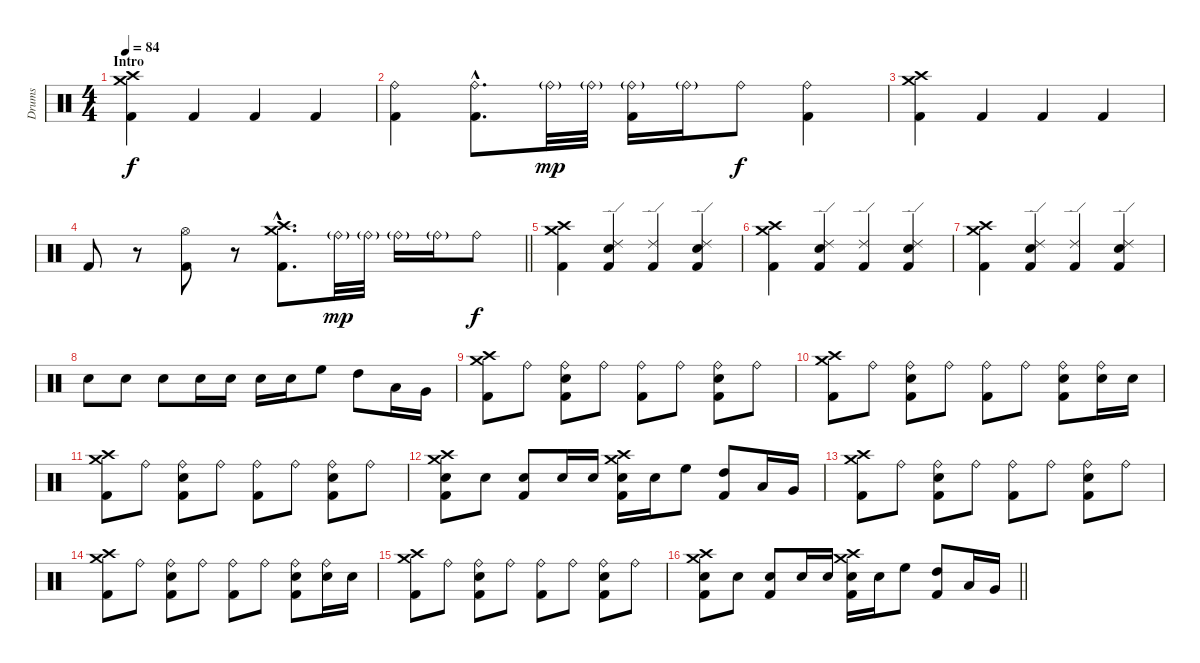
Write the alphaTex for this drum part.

\track ("Drums" "Drums") {instrument percussion}
\staff {score}
\articulation defaults
\ts (4 4)
\section ("" "Intro")
\tempo 84
\clef neutral
\ks c
("Crash high (hit)" "Crash medium (hit)" "Kick (hit) 2").4{dy f} "Kick (hit) 2".4 "Kick (hit) 2".4 "Kick (hit) 2".4 |
("Ride (bell)" "Kick (hit) 2").4 ("Ride (bell)"{hac} "Kick (hit) 2"{hac}).8{d} "Ride (bell)"{g}.32{dy mp} "Ride (bell)"{g}.32 ("Ride (bell)"{g} "Kick (hit) 2").16 "Ride (bell)"{g}.16 "Ride (bell)".8{dy f} ("Ride (bell)" "Kick (hit) 2").4 |
("Crash medium (hit)" "Crash high (hit)" "Kick (hit) 2").4 "Kick (hit) 2".4 "Kick (hit) 2".4 "Kick (hit) 2".4 |
\barLineRight lightlight "Kick (hit) 2".8
r.8 ("Hi-Hat (open)" "Kick (hit) 2").8 r.8 ("Crash medium (hit)"{hac} "Crash high (hit)"{hac} "Kick (hit) 2"{hac}).8{d} "Ride (bell)"{g}.32{dy mp} "Ride (bell)"{g}.32 "Ride (bell)"{g}.16 "Ride (bell)"{g}.16 "Ride (bell)".8{dy f} |
("Crash medium (hit)" "Crash high (hit)" "Kick (hit) 2").4 ("Ride (edge) 2" "Snare (hit) 2" "Kick (hit) 2").4 ("Ride (edge) 2" "Kick (hit) 2").4 ("Ride (edge) 2" "Snare (hit) 2" "Kick (hit) 2").4 |
("Crash medium (hit)" "Crash high (hit)" "Kick (hit) 2").4 ("Ride (edge) 2" "Snare (hit) 2" "Kick (hit) 2").4 ("Ride (edge) 2" "Kick (hit) 2").4 ("Ride (edge) 2" "Snare (hit) 2" "Kick (hit) 2").4 |
("Crash medium (hit)" "Crash high (hit)" "Kick (hit) 2").4 ("Ride (edge) 2" "Snare (hit) 2" "Kick (hit) 2").4 ("Ride (edge) 2" "Kick (hit) 2").4 ("Ride (edge) 2" "Snare (hit) 2" "Kick (hit) 2").4 |
"Snare (hit) 2".8 "Snare (hit) 2".8 "Snare (hit) 2".8 "Snare (hit) 2".16 "Snare (hit) 2".16 "Snare (hit) 2".16 "Snare (hit) 2".16 "High Floor Tom (hit)".8 "High Tom (hit)".8 "Low Tom (hit)".16 "Very Low Tom (hit)".16 |
("Crash medium (hit)" "Crash high (hit)" "Kick (hit) 2").8 "Ride (bell)".8 ("Ride (bell)" "Snare (hit) 2" "Kick (hit) 2").8 "Ride (bell)".8 ("Ride (bell)" "Kick (hit) 2").8 "Ride (bell)".8 ("Ride (bell)" "Snare (hit) 2" "Kick (hit) 2").8 "Ride (bell)".8 |
("Crash medium (hit)" "Crash high (hit)" "Kick (hit) 2").8 "Ride (bell)".8 ("Ride (bell)" "Snare (hit) 2" "Kick (hit) 2").8 "Ride (bell)".8 ("Ride (bell)" "Kick (hit) 2").8 "Ride (bell)".8 ("Ride (bell)" "Snare (hit) 2" "Kick (hit) 2").8 ("Ride (bell)" "Snare (hit) 2").16 "Snare (hit) 2".16 |
("Crash medium (hit)" "Crash high (hit)" "Kick (hit) 2").8 "Ride (bell)".8 ("Ride (bell)" "Snare (hit) 2" "Kick (hit) 2").8 "Ride (bell)".8 ("Ride (bell)" "Kick (hit) 2").8 "Ride (bell)".8 ("Ride (bell)" "Snare (hit) 2" "Kick (hit) 2").8 "Ride (bell)".8 |
("Crash medium (hit)" "Crash high (hit)" "Snare (hit) 2" "Kick (hit) 2").8 "Snare (hit) 2".8 ("Snare (hit) 2" "Kick (hit) 2").8 "Snare (hit) 2".16 "Snare (hit) 2".16 ("Crash medium (hit)" "Crash high (hit)" "Snare (hit) 2" "Kick (hit) 2").16 "Snare (hit) 2".16 "High Floor Tom (hit)".8 ("High Tom (hit)" "Kick (hit) 2").8 "Low Tom (hit)".16 "Very Low Tom (hit)".16 |
("Crash medium (hit)" "Crash high (hit)" "Kick (hit) 2").8 "Ride (bell)".8 ("Ride (bell)" "Snare (hit) 2" "Kick (hit) 2").8 "Ride (bell)".8 ("Ride (bell)" "Kick (hit) 2").8 "Ride (bell)".8 ("Ride (bell)" "Snare (hit) 2" "Kick (hit) 2").8 "Ride (bell)".8 |
("Crash medium (hit)" "Crash high (hit)" "Kick (hit) 2").8 "Ride (bell)".8 ("Ride (bell)" "Snare (hit) 2" "Kick (hit) 2").8 "Ride (bell)".8 ("Ride (bell)" "Kick (hit) 2").8 "Ride (bell)".8 ("Ride (bell)" "Snare (hit) 2" "Kick (hit) 2").8 ("Ride (bell)" "Snare (hit) 2").16 "Snare (hit) 2".16 |
("Crash medium (hit)" "Crash high (hit)" "Kick (hit) 2").8 "Ride (bell)".8 ("Ride (bell)" "Snare (hit) 2" "Kick (hit) 2").8 "Ride (bell)".8 ("Ride (bell)" "Kick (hit) 2").8 "Ride (bell)".8 ("Ride (bell)" "Snare (hit) 2" "Kick (hit) 2").8 "Ride (bell)".8 |
\barLineRight lightlight
("Crash medium (hit)" "Crash high (hit)" "Snare (hit) 2" "Kick (hit) 2").8 "Snare (hit) 2".8 ("Snare (hit) 2" "Kick (hit) 2").8 "Snare (hit) 2".16 "Snare (hit) 2".16 ("Crash medium (hit)" "Crash high (hit)" "Snare (hit) 2" "Kick (hit) 2").16 "Snare (hit) 2".16 "High Floor Tom (hit)".8 ("High Tom (hit)" "Kick (hit) 2").8 "Low Tom (hit)".16 "Very Low Tom (hit)".16
